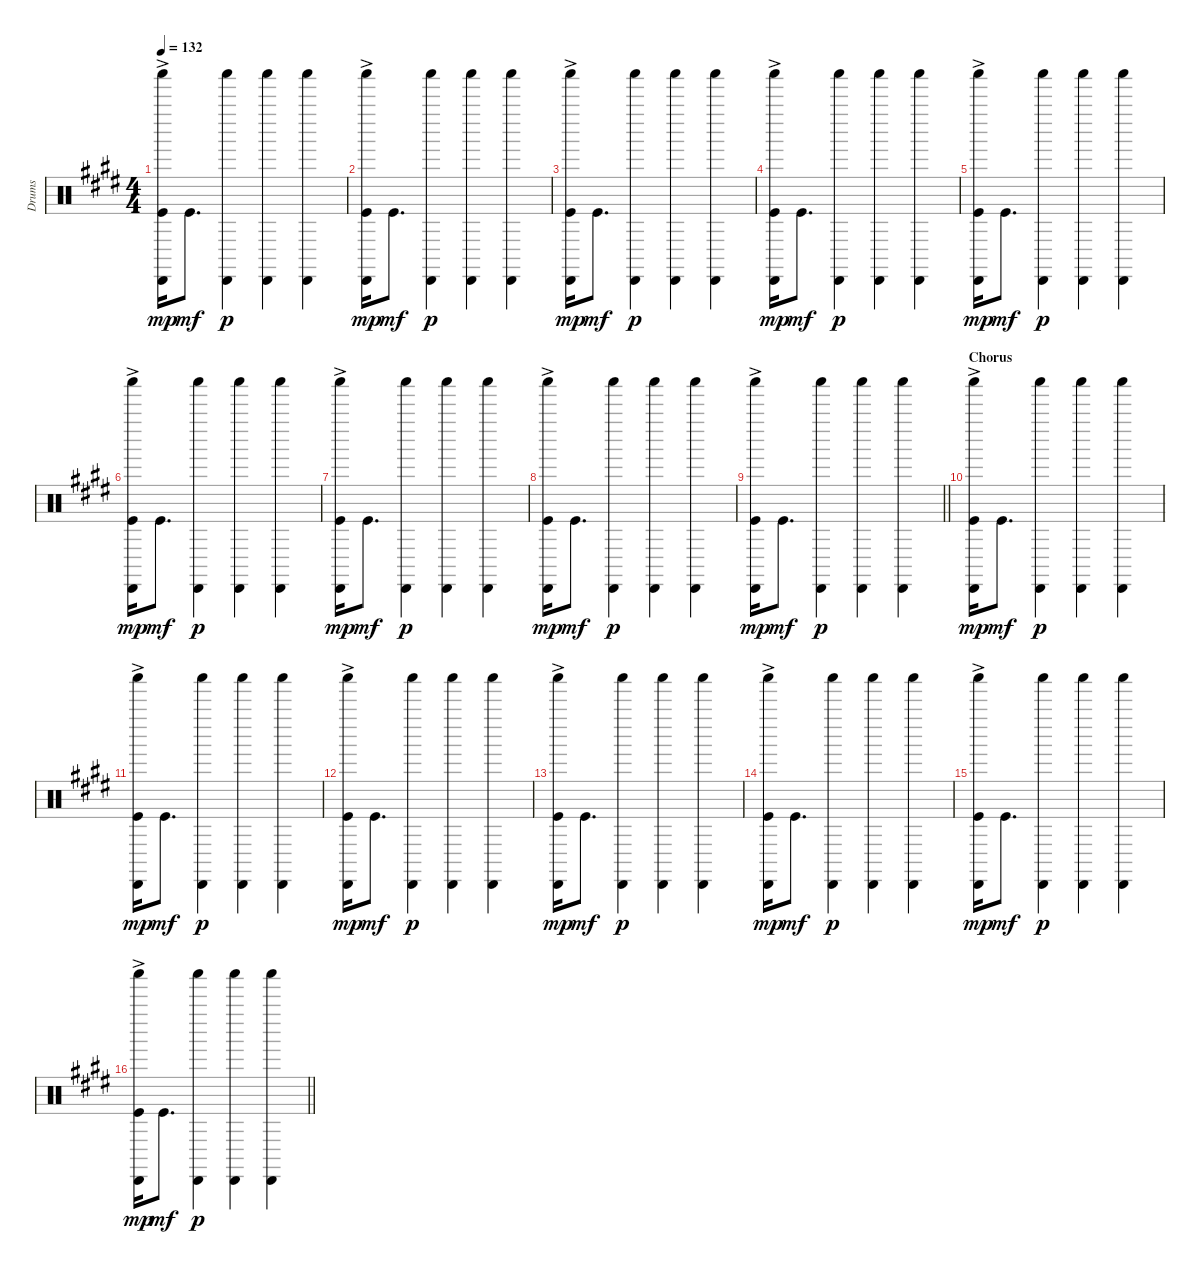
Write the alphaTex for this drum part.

\track ("Drums" "Drums") {instrument percussion}
\staff {score}
\articulation defaults
\ts (4 4)
\tempo 132
\clef neutral
\ks e
("Shaker (hit)" "Cabasa (hit)"{ac} "Kick (hit)").16{dy mp} "Kick (hit)".8{d dy mf} ("Shaker (hit)" "Cabasa (hit)").4{dy p} ("Shaker (hit)" "Cabasa (hit)").4 ("Shaker (hit)" "Cabasa (hit)").4 |
("Shaker (hit)" "Cabasa (hit)"{ac} "Kick (hit)").16{dy mp} "Kick (hit)".8{d dy mf} ("Shaker (hit)" "Cabasa (hit)").4{dy p} ("Shaker (hit)" "Cabasa (hit)").4 ("Shaker (hit)" "Cabasa (hit)").4 |
("Shaker (hit)" "Cabasa (hit)"{ac} "Kick (hit)").16{dy mp} "Kick (hit)".8{d dy mf} ("Shaker (hit)" "Cabasa (hit)").4{dy p} ("Shaker (hit)" "Cabasa (hit)").4 ("Shaker (hit)" "Cabasa (hit)").4 |
("Shaker (hit)" "Cabasa (hit)"{ac} "Kick (hit)").16{dy mp} "Kick (hit)".8{d dy mf} ("Shaker (hit)" "Cabasa (hit)").4{dy p} ("Shaker (hit)" "Cabasa (hit)").4 ("Shaker (hit)" "Cabasa (hit)").4 |
("Shaker (hit)" "Cabasa (hit)"{ac} "Kick (hit)").16{dy mp} "Kick (hit)".8{d dy mf} ("Shaker (hit)" "Cabasa (hit)").4{dy p} ("Shaker (hit)" "Cabasa (hit)").4 ("Shaker (hit)" "Cabasa (hit)").4 |
("Shaker (hit)" "Cabasa (hit)"{ac} "Kick (hit)").16{dy mp} "Kick (hit)".8{d dy mf} ("Shaker (hit)" "Cabasa (hit)").4{dy p} ("Shaker (hit)" "Cabasa (hit)").4 ("Shaker (hit)" "Cabasa (hit)").4 |
("Shaker (hit)" "Cabasa (hit)"{ac} "Kick (hit)").16{dy mp} "Kick (hit)".8{d dy mf} ("Shaker (hit)" "Cabasa (hit)").4{dy p} ("Shaker (hit)" "Cabasa (hit)").4 ("Shaker (hit)" "Cabasa (hit)").4 |
("Shaker (hit)" "Cabasa (hit)"{ac} "Kick (hit)").16{dy mp} "Kick (hit)".8{d dy mf} ("Shaker (hit)" "Cabasa (hit)").4{dy p} ("Shaker (hit)" "Cabasa (hit)").4 ("Shaker (hit)" "Cabasa (hit)").4 |
\barLineRight lightlight
("Shaker (hit)" "Cabasa (hit)"{ac} "Kick (hit)").16{dy mp} "Kick (hit)".8{d dy mf} ("Shaker (hit)" "Cabasa (hit)").4{dy p} ("Shaker (hit)" "Cabasa (hit)").4 ("Shaker (hit)" "Cabasa (hit)").4 |
\section ("" "Chorus")
("Shaker (hit)" "Cabasa (hit)"{ac} "Kick (hit)").16{dy mp} "Kick (hit)".8{d dy mf} ("Shaker (hit)" "Cabasa (hit)").4{dy p} ("Shaker (hit)" "Cabasa (hit)").4 ("Shaker (hit)" "Cabasa (hit)").4 |
("Shaker (hit)" "Cabasa (hit)"{ac} "Kick (hit)").16{dy mp} "Kick (hit)".8{d dy mf} ("Shaker (hit)" "Cabasa (hit)").4{dy p} ("Shaker (hit)" "Cabasa (hit)").4 ("Shaker (hit)" "Cabasa (hit)").4 |
("Shaker (hit)" "Cabasa (hit)"{ac} "Kick (hit)").16{dy mp} "Kick (hit)".8{d dy mf} ("Shaker (hit)" "Cabasa (hit)").4{dy p} ("Shaker (hit)" "Cabasa (hit)").4 ("Shaker (hit)" "Cabasa (hit)").4 |
("Shaker (hit)" "Cabasa (hit)"{ac} "Kick (hit)").16{dy mp} "Kick (hit)".8{d dy mf} ("Shaker (hit)" "Cabasa (hit)").4{dy p} ("Shaker (hit)" "Cabasa (hit)").4 ("Shaker (hit)" "Cabasa (hit)").4 |
("Shaker (hit)" "Cabasa (hit)"{ac} "Kick (hit)").16{dy mp} "Kick (hit)".8{d dy mf} ("Shaker (hit)" "Cabasa (hit)").4{dy p} ("Shaker (hit)" "Cabasa (hit)").4 ("Shaker (hit)" "Cabasa (hit)").4 |
("Shaker (hit)" "Cabasa (hit)"{ac} "Kick (hit)").16{dy mp} "Kick (hit)".8{d dy mf} ("Shaker (hit)" "Cabasa (hit)").4{dy p} ("Shaker (hit)" "Cabasa (hit)").4 ("Shaker (hit)" "Cabasa (hit)").4 |
\barLineRight lightlight
("Shaker (hit)" "Cabasa (hit)"{ac} "Kick (hit)").16{dy mp} "Kick (hit)".8{d dy mf} ("Shaker (hit)" "Cabasa (hit)").4{dy p} ("Shaker (hit)" "Cabasa (hit)").4 ("Shaker (hit)" "Cabasa (hit)").4
